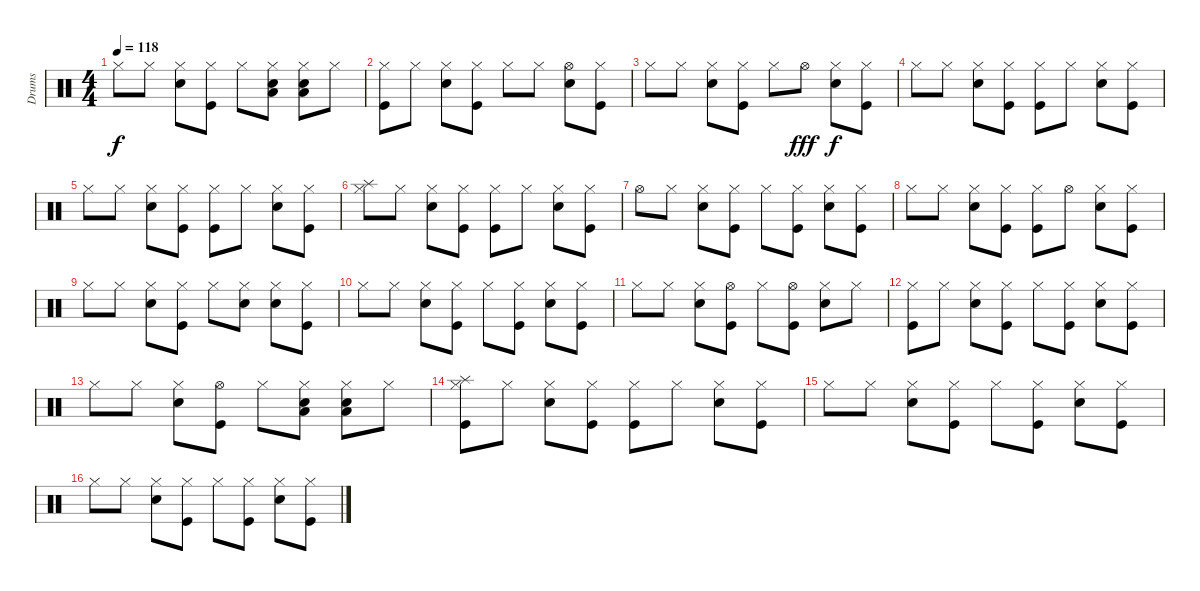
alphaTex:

\track ("Drums" "Drums") {instrument percussion}
\staff {score}
\articulation defaults
\ts (4 4)
\tempo 118
\clef neutral
\ks c "Hi-Hat (closed)".8{dy f} "Hi-Hat (closed)".8
("Hi-Hat (closed)" "Snare (hit) 2").8 ("Hi-Hat (closed)" "Kick (hit)").8 "Hi-Hat (closed)".8 ("Hi-Hat (closed)" "Snare (hit) 2" "Low Floor Tom (hit)").8 ("Hi-Hat (closed)" "Snare (hit) 2" "Low Floor Tom (hit)").8 "Hi-Hat (closed)".8 |
("Hi-Hat (closed)" "Kick (hit)").8 "Hi-Hat (closed)".8 ("Hi-Hat (closed)" "Snare (hit) 2").8 ("Hi-Hat (closed)" "Kick (hit)").8 "Hi-Hat (closed)".8 "Hi-Hat (closed)".8 ("Hi-Hat (open)" "Snare (hit) 2").8 ("Hi-Hat (closed)" "Kick (hit)").8 |
"Hi-Hat (closed)".8 "Hi-Hat (closed)".8 ("Hi-Hat (closed)" "Snare (hit) 2").8 ("Hi-Hat (closed)" "Kick (hit)").8 "Hi-Hat (closed)".8 "Hi-Hat (open)".8{dy fff} ("Hi-Hat (closed)" "Snare (hit) 2").8{dy f} ("Hi-Hat (closed)" "Kick (hit)").8 |
"Hi-Hat (closed)".8 "Hi-Hat (closed)".8 ("Hi-Hat (closed)" "Snare (hit) 2").8 ("Hi-Hat (closed)" "Kick (hit)").8 ("Hi-Hat (closed)" "Kick (hit)").8 "Hi-Hat (closed)".8 ("Hi-Hat (closed)" "Snare (hit) 2").8 ("Hi-Hat (closed)" "Kick (hit)").8 |
"Hi-Hat (closed)".8 "Hi-Hat (closed)".8 ("Hi-Hat (closed)" "Snare (hit) 2").8 ("Hi-Hat (closed)" "Kick (hit)").8 ("Hi-Hat (closed)" "Kick (hit)").8 "Hi-Hat (closed)".8 ("Hi-Hat (closed)" "Snare (hit) 2").8 ("Hi-Hat (closed)" "Kick (hit)").8 |
("Hi-Hat (closed)" "Splash (hit)").8 "Hi-Hat (closed)".8 ("Hi-Hat (closed)" "Snare (hit) 2").8 ("Hi-Hat (closed)" "Kick (hit)").8 ("Hi-Hat (closed)" "Kick (hit)").8 "Hi-Hat (closed)".8 ("Hi-Hat (closed)" "Snare (hit) 2").8 ("Hi-Hat (closed)" "Kick (hit)").8 |
"Hi-Hat (open)".8 "Hi-Hat (closed)".8 ("Hi-Hat (closed)" "Snare (hit) 2").8 ("Hi-Hat (closed)" "Kick (hit)").8 "Hi-Hat (closed)".8 ("Hi-Hat (closed)" "Kick (hit)").8 ("Hi-Hat (closed)" "Snare (hit) 2").8 ("Hi-Hat (closed)" "Kick (hit)").8 |
"Hi-Hat (closed)".8 "Hi-Hat (closed)".8 ("Hi-Hat (closed)" "Snare (hit) 2").8 ("Hi-Hat (closed)" "Kick (hit)").8 ("Hi-Hat (closed)" "Kick (hit)").8 "Hi-Hat (open)".8 ("Hi-Hat (closed)" "Snare (hit) 2").8 ("Hi-Hat (closed)" "Kick (hit)").8 |
"Hi-Hat (closed)".8 "Hi-Hat (closed)".8 ("Hi-Hat (closed)" "Snare (hit) 2").8 ("Hi-Hat (closed)" "Kick (hit)").8 "Hi-Hat (closed)".8 ("Hi-Hat (closed)" "Snare (hit) 2").8 ("Hi-Hat (closed)" "Snare (hit) 2").8 ("Hi-Hat (closed)" "Kick (hit)").8 |
"Hi-Hat (closed)".8 "Hi-Hat (closed)".8 ("Hi-Hat (closed)" "Snare (hit) 2").8 ("Hi-Hat (closed)" "Kick (hit)").8 "Hi-Hat (closed)".8 ("Hi-Hat (closed)" "Kick (hit)").8 ("Hi-Hat (closed)" "Snare (hit) 2").8 ("Hi-Hat (closed)" "Kick (hit)").8 |
"Hi-Hat (closed)".8 "Hi-Hat (closed)".8 ("Hi-Hat (closed)" "Snare (hit) 2").8 ("Hi-Hat (open)" "Kick (hit)").8 "Hi-Hat (closed)".8 ("Hi-Hat (open)" "Kick (hit)").8 ("Hi-Hat (closed)" "Snare (hit) 2").8 "Hi-Hat (closed)".8 |
("Hi-Hat (closed)" "Kick (hit)").8 "Hi-Hat (closed)".8 ("Hi-Hat (closed)" "Snare (hit) 2").8 ("Hi-Hat (closed)" "Kick (hit)").8 "Hi-Hat (closed)".8 ("Hi-Hat (closed)" "Kick (hit)").8 ("Hi-Hat (closed)" "Snare (hit) 2").8 ("Hi-Hat (closed)" "Kick (hit)").8 |
"Hi-Hat (closed)".8 "Hi-Hat (closed)".8 ("Hi-Hat (closed)" "Snare (hit) 2").8 ("Hi-Hat (open)" "Kick (hit)").8 "Hi-Hat (closed)".8 ("Hi-Hat (closed)" "Snare (hit) 2" "Low Floor Tom (hit)").8 ("Hi-Hat (closed)" "Snare (hit) 2" "Low Floor Tom (hit)").8 "Hi-Hat (closed)".8 |
("Hi-Hat (closed)" "Splash (hit)" "Kick (hit)").8 "Hi-Hat (closed)".8 ("Hi-Hat (closed)" "Snare (hit) 2").8 ("Hi-Hat (closed)" "Kick (hit)").8 ("Hi-Hat (closed)" "Kick (hit)").8 "Hi-Hat (closed)".8 ("Hi-Hat (closed)" "Snare (hit) 2").8 ("Hi-Hat (closed)" "Kick (hit)").8 |
"Hi-Hat (closed)".8 "Hi-Hat (closed)".8 ("Hi-Hat (closed)" "Snare (hit) 2").8 ("Hi-Hat (closed)" "Kick (hit)").8 "Hi-Hat (closed)".8 ("Hi-Hat (closed)" "Kick (hit)").8 ("Hi-Hat (closed)" "Snare (hit) 2").8 ("Hi-Hat (closed)" "Kick (hit)").8 |
"Hi-Hat (closed)".8 "Hi-Hat (closed)".8 ("Hi-Hat (closed)" "Snare (hit) 2").8 ("Hi-Hat (closed)" "Kick (hit)").8 "Hi-Hat (closed)".8 ("Hi-Hat (closed)" "Kick (hit)").8 ("Hi-Hat (closed)" "Snare (hit) 2").8 ("Hi-Hat (closed)" "Kick (hit)").8
